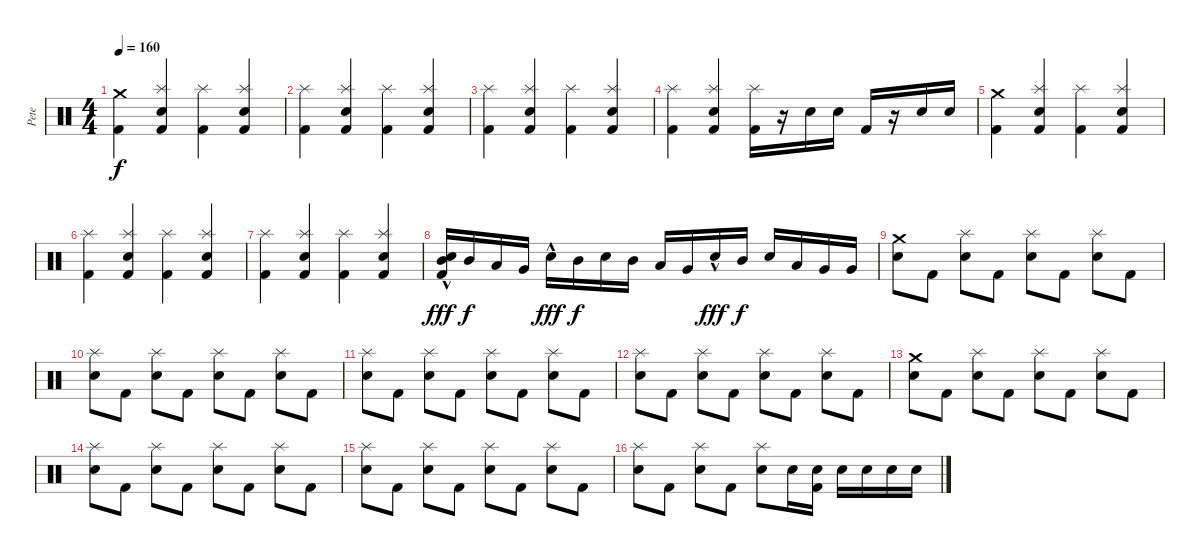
\track ("Pete" "Pete") {instrument percussion}
\staff {score}
\articulation defaults
\ts (4 4)
\tempo 160
\clef neutral
\ks c
("Crash medium (hit)" "Kick (hit) 2").4{dy f} ("Splash (hit)" "Electric Snare (hit)" "Kick (hit) 2").4 ("Splash (hit)" "Kick (hit) 2").4 ("Splash (hit)" "Electric Snare (hit)" "Kick (hit) 2").4 |
("Splash (hit)" "Kick (hit) 2").4 ("Splash (hit)" "Electric Snare (hit)" "Kick (hit) 2").4 ("Splash (hit)" "Kick (hit) 2").4 ("Splash (hit)" "Electric Snare (hit)" "Kick (hit) 2").4 |
("Splash (hit)" "Kick (hit) 2").4 ("Splash (hit)" "Electric Snare (hit)" "Kick (hit) 2").4 ("Splash (hit)" "Kick (hit) 2").4 ("Splash (hit)" "Electric Snare (hit)" "Kick (hit) 2").4 |
("Splash (hit)" "Kick (hit) 2").4 ("Splash (hit)" "Electric Snare (hit)" "Kick (hit) 2").4 ("Splash (hit)" "Kick (hit) 2").16 r.16 "Electric Snare (hit)".16 "Electric Snare (hit)".16 "Kick (hit) 2".16 r.16 "Electric Snare (hit)".16 "Electric Snare (hit)".16 |
("Crash medium (hit)" "Kick (hit) 2").4 ("Splash (hit)" "Electric Snare (hit)" "Kick (hit) 2").4 ("Splash (hit)" "Kick (hit) 2").4 ("Splash (hit)" "Electric Snare (hit)" "Kick (hit) 2").4 |
("Splash (hit)" "Kick (hit) 2").4 ("Splash (hit)" "Electric Snare (hit)" "Kick (hit) 2").4 ("Splash (hit)" "Kick (hit) 2").4 ("Splash (hit)" "Electric Snare (hit)" "Kick (hit) 2").4 |
("Splash (hit)" "Kick (hit) 2").4 ("Splash (hit)" "Electric Snare (hit)" "Kick (hit) 2").4 ("Splash (hit)" "Kick (hit) 2").4 ("Splash (hit)" "Electric Snare (hit)" "Kick (hit) 2").4 |
("Mid Tom (hit)" "Electric Snare (hit)"{hac} "Kick (hit) 2").16{dy fff} "Mid Tom (hit)".16{dy f} "Low Tom (hit)".16 "Very Low Tom (hit)".16 "Electric Snare (hit)"{hac}.16{dy fff} "Mid Tom (hit)".16{dy f} "Electric Snare (hit)".16 "Mid Tom (hit)".16 "Low Tom (hit)".16 "Very Low Tom (hit)".16 "Electric Snare (hit)"{hac}.16{dy fff} "Mid Tom (hit)".16{dy f} "Electric Snare (hit)".16 "Low Tom (hit)".16 "Very Low Tom (hit)".16 "Very Low Tom (hit)".16 |
("Crash medium (hit)" "Electric Snare (hit)").8 "Kick (hit) 2".8 ("Splash (hit)" "Electric Snare (hit)").8 "Kick (hit) 2".8 ("Splash (hit)" "Electric Snare (hit)").8 "Kick (hit) 2".8 ("Splash (hit)" "Electric Snare (hit)").8 "Kick (hit) 2".8 |
("Splash (hit)" "Electric Snare (hit)").8 "Kick (hit) 2".8 ("Splash (hit)" "Electric Snare (hit)").8 "Kick (hit) 2".8 ("Splash (hit)" "Electric Snare (hit)").8 "Kick (hit) 2".8 ("Splash (hit)" "Electric Snare (hit)").8 "Kick (hit) 2".8 |
("Splash (hit)" "Electric Snare (hit)").8 "Kick (hit) 2".8 ("Splash (hit)" "Electric Snare (hit)").8 "Kick (hit) 2".8 ("Splash (hit)" "Electric Snare (hit)").8 "Kick (hit) 2".8 ("Splash (hit)" "Electric Snare (hit)").8 "Kick (hit) 2".8 |
("Splash (hit)" "Electric Snare (hit)").8 "Kick (hit) 2".8 ("Splash (hit)" "Electric Snare (hit)").8 "Kick (hit) 2".8 ("Splash (hit)" "Electric Snare (hit)").8 "Kick (hit) 2".8 ("Splash (hit)" "Electric Snare (hit)").8 "Kick (hit) 2".8 |
("Crash medium (hit)" "Electric Snare (hit)").8 "Kick (hit) 2".8 ("Splash (hit)" "Electric Snare (hit)").8 "Kick (hit) 2".8 ("Splash (hit)" "Electric Snare (hit)").8 "Kick (hit) 2".8 ("Splash (hit)" "Electric Snare (hit)").8 "Kick (hit) 2".8 |
("Splash (hit)" "Electric Snare (hit)").8 "Kick (hit) 2".8 ("Splash (hit)" "Electric Snare (hit)").8 "Kick (hit) 2".8 ("Splash (hit)" "Electric Snare (hit)").8 "Kick (hit) 2".8 ("Splash (hit)" "Electric Snare (hit)").8 "Kick (hit) 2".8 |
("Splash (hit)" "Electric Snare (hit)").8 "Kick (hit) 2".8 ("Splash (hit)" "Electric Snare (hit)").8 "Kick (hit) 2".8 ("Splash (hit)" "Electric Snare (hit)").8 "Kick (hit) 2".8 ("Splash (hit)" "Electric Snare (hit)").8 "Kick (hit) 2".8 |
("Splash (hit)" "Electric Snare (hit)").8 "Kick (hit) 2".8 ("Splash (hit)" "Electric Snare (hit)").8 "Kick (hit) 2".8 ("Splash (hit)" "Electric Snare (hit)").8 "Electric Snare (hit)".16 ("Electric Snare (hit)" "Kick (hit) 2").16 "Electric Snare (hit)".16 "Electric Snare (hit)".16 "Electric Snare (hit)".16 "Electric Snare (hit)".16
